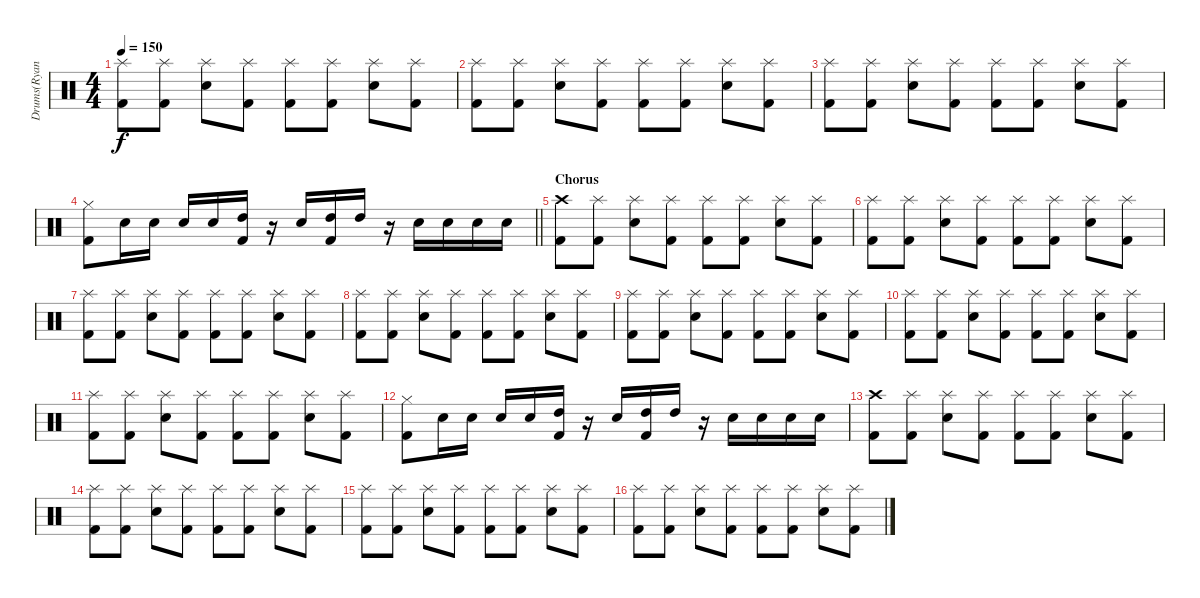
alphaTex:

\track ("Drums(Ryan)" "Drums(Ryan") {instrument percussion}
\staff {score}
\articulation defaults
\ts (4 4)
\tempo 150
\clef neutral
\ks c
("Splash (hit)" "Kick (hit) 2").8{dy f} ("Splash (hit)" "Kick (hit) 2").8 ("Splash (hit)" "Electric Snare (hit)").8 ("Splash (hit)" "Kick (hit) 2").8 ("Splash (hit)" "Kick (hit) 2").8 ("Splash (hit)" "Kick (hit) 2").8 ("Splash (hit)" "Electric Snare (hit)").8 ("Splash (hit)" "Kick (hit) 2").8 |
("Splash (hit)" "Kick (hit) 2").8 ("Splash (hit)" "Kick (hit) 2").8 ("Splash (hit)" "Electric Snare (hit)").8 ("Splash (hit)" "Kick (hit) 2").8 ("Splash (hit)" "Kick (hit) 2").8 ("Splash (hit)" "Kick (hit) 2").8 ("Splash (hit)" "Electric Snare (hit)").8 ("Splash (hit)" "Kick (hit) 2").8 |
("Splash (hit)" "Kick (hit) 2").8 ("Splash (hit)" "Kick (hit) 2").8 ("Splash (hit)" "Electric Snare (hit)").8 ("Splash (hit)" "Kick (hit) 2").8 ("Splash (hit)" "Kick (hit) 2").8 ("Splash (hit)" "Kick (hit) 2").8 ("Splash (hit)" "Electric Snare (hit)").8 ("Splash (hit)" "Kick (hit) 2").8 |
\barLineRight lightlight
("Hi-Hat (closed)" "Kick (hit) 2").8 "Electric Snare (hit)".16 "Electric Snare (hit)".16 "Electric Snare (hit)".16 "Electric Snare (hit)".16 ("High Tom (hit)" "Kick (hit) 2").16 r.16 "Electric Snare (hit)".16 ("High Tom (hit)" "Kick (hit) 2").16 "High Tom (hit)".16 r.16 "Electric Snare (hit)".16 "Electric Snare (hit)".16 "Electric Snare (hit)".16 "Electric Snare (hit)".16 |
\section ("" "Chorus")
("Crash high (hit)" "Kick (hit) 2").8 ("Splash (hit)" "Kick (hit) 2").8 ("Splash (hit)" "Electric Snare (hit)").8 ("Splash (hit)" "Kick (hit) 2").8 ("Splash (hit)" "Kick (hit) 2").8 ("Splash (hit)" "Kick (hit) 2").8 ("Splash (hit)" "Electric Snare (hit)").8 ("Splash (hit)" "Kick (hit) 2").8 |
("Splash (hit)" "Kick (hit) 2").8 ("Splash (hit)" "Kick (hit) 2").8 ("Splash (hit)" "Electric Snare (hit)").8 ("Splash (hit)" "Kick (hit) 2").8 ("Splash (hit)" "Kick (hit) 2").8 ("Splash (hit)" "Kick (hit) 2").8 ("Splash (hit)" "Electric Snare (hit)").8 ("Splash (hit)" "Kick (hit) 2").8 |
("Splash (hit)" "Kick (hit) 2").8 ("Splash (hit)" "Kick (hit) 2").8 ("Splash (hit)" "Electric Snare (hit)").8 ("Splash (hit)" "Kick (hit) 2").8 ("Splash (hit)" "Kick (hit) 2").8 ("Splash (hit)" "Kick (hit) 2").8 ("Splash (hit)" "Electric Snare (hit)").8 ("Splash (hit)" "Kick (hit) 2").8 |
("Splash (hit)" "Kick (hit) 2").8 ("Splash (hit)" "Kick (hit) 2").8 ("Splash (hit)" "Electric Snare (hit)").8 ("Splash (hit)" "Kick (hit) 2").8 ("Splash (hit)" "Kick (hit) 2").8 ("Splash (hit)" "Kick (hit) 2").8 ("Splash (hit)" "Electric Snare (hit)").8 ("Splash (hit)" "Kick (hit) 2").8 |
("Splash (hit)" "Kick (hit) 2").8 ("Splash (hit)" "Kick (hit) 2").8 ("Splash (hit)" "Electric Snare (hit)").8 ("Splash (hit)" "Kick (hit) 2").8 ("Splash (hit)" "Kick (hit) 2").8 ("Splash (hit)" "Kick (hit) 2").8 ("Splash (hit)" "Electric Snare (hit)").8 ("Splash (hit)" "Kick (hit) 2").8 |
("Splash (hit)" "Kick (hit) 2").8 ("Splash (hit)" "Kick (hit) 2").8 ("Splash (hit)" "Electric Snare (hit)").8 ("Splash (hit)" "Kick (hit) 2").8 ("Splash (hit)" "Kick (hit) 2").8 ("Splash (hit)" "Kick (hit) 2").8 ("Splash (hit)" "Electric Snare (hit)").8 ("Splash (hit)" "Kick (hit) 2").8 |
("Splash (hit)" "Kick (hit) 2").8 ("Splash (hit)" "Kick (hit) 2").8 ("Splash (hit)" "Electric Snare (hit)").8 ("Splash (hit)" "Kick (hit) 2").8 ("Splash (hit)" "Kick (hit) 2").8 ("Splash (hit)" "Kick (hit) 2").8 ("Splash (hit)" "Electric Snare (hit)").8 ("Splash (hit)" "Kick (hit) 2").8 |
("Hi-Hat (closed)" "Kick (hit) 2").8 "Electric Snare (hit)".16 "Electric Snare (hit)".16 "Electric Snare (hit)".16 "Electric Snare (hit)".16 ("High Tom (hit)" "Kick (hit) 2").16 r.16 "Electric Snare (hit)".16 ("High Tom (hit)" "Kick (hit) 2").16 "High Tom (hit)".16 r.16 "Electric Snare (hit)".16 "Electric Snare (hit)".16 "Electric Snare (hit)".16 "Electric Snare (hit)".16 |
("Crash high (hit)" "Kick (hit) 2").8 ("Splash (hit)" "Kick (hit) 2").8 ("Splash (hit)" "Electric Snare (hit)").8 ("Splash (hit)" "Kick (hit) 2").8 ("Splash (hit)" "Kick (hit) 2").8 ("Splash (hit)" "Kick (hit) 2").8 ("Splash (hit)" "Electric Snare (hit)").8 ("Splash (hit)" "Kick (hit) 2").8 |
("Splash (hit)" "Kick (hit) 2").8 ("Splash (hit)" "Kick (hit) 2").8 ("Splash (hit)" "Electric Snare (hit)").8 ("Splash (hit)" "Kick (hit) 2").8 ("Splash (hit)" "Kick (hit) 2").8 ("Splash (hit)" "Kick (hit) 2").8 ("Splash (hit)" "Electric Snare (hit)").8 ("Splash (hit)" "Kick (hit) 2").8 |
("Splash (hit)" "Kick (hit) 2").8 ("Splash (hit)" "Kick (hit) 2").8 ("Splash (hit)" "Electric Snare (hit)").8 ("Splash (hit)" "Kick (hit) 2").8 ("Splash (hit)" "Kick (hit) 2").8 ("Splash (hit)" "Kick (hit) 2").8 ("Splash (hit)" "Electric Snare (hit)").8 ("Splash (hit)" "Kick (hit) 2").8 |
("Splash (hit)" "Kick (hit) 2").8 ("Splash (hit)" "Kick (hit) 2").8 ("Splash (hit)" "Electric Snare (hit)").8 ("Splash (hit)" "Kick (hit) 2").8 ("Splash (hit)" "Kick (hit) 2").8 ("Splash (hit)" "Kick (hit) 2").8 ("Splash (hit)" "Electric Snare (hit)").8 ("Splash (hit)" "Kick (hit) 2").8
